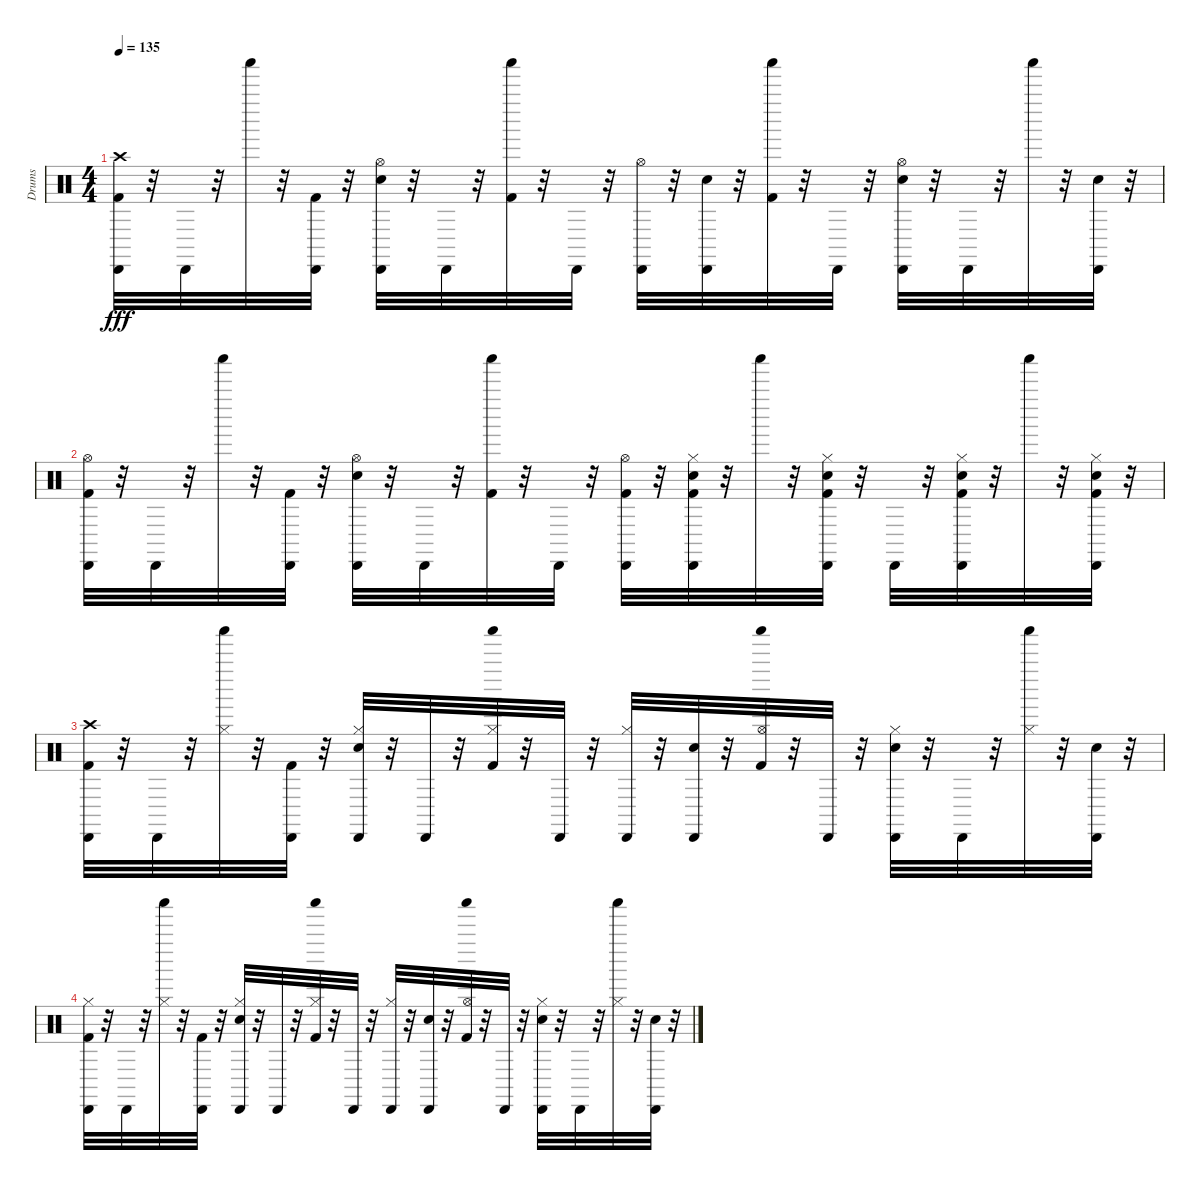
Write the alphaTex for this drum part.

\track ("Drums" "Drums") {instrument percussion}
\staff {score}
\articulation defaults
\ts (4 4)
\tempo 135
\clef neutral
\ks c
("Crash high (hit)" "Kick (hit) 2" "Cabasa (hit)").32{dy fff} r.32 "Cabasa (hit)".32 r.32 "Shaker (hit)".32 r.32 ("Kick (hit) 2" "Cabasa (hit)").32 r.32 ("Snare (hit) 2" "Hi-Hat (open)" "Cabasa (hit)").32 r.32 "Cabasa (hit)".32 r.32 ("Kick (hit) 2" "Shaker (hit)").32 r.32 "Cabasa (hit)".32 r.32 ("Hi-Hat (open)" "Cabasa (hit)").32 r.32 ("Snare (hit) 2" "Cabasa (hit)").32 r.32 ("Kick (hit) 2" "Shaker (hit)").32 r.32 "Cabasa (hit)".32 r.32 ("Snare (hit) 2" "Hi-Hat (open)" "Cabasa (hit)").32 r.32 "Cabasa (hit)".32 r.32 "Shaker (hit)".32 r.32 ("Snare (hit) 2" "Cabasa (hit)").32 r.32 |
("Hi-Hat (open)" "Kick (hit) 2" "Cabasa (hit)").32 r.32 "Cabasa (hit)".32 r.32 "Shaker (hit)".32 r.32 ("Kick (hit) 2" "Cabasa (hit)").32 r.32 ("Snare (hit) 2" "Hi-Hat (open)" "Cabasa (hit)").32 r.32 "Cabasa (hit)".32 r.32 ("Kick (hit) 2" "Shaker (hit)").32 r.32 "Cabasa (hit)".32 r.32 ("Hi-Hat (open)" "Kick (hit) 2" "Cabasa (hit)").32 r.32 ("Snare (hit) 2" "Kick (hit) 2" "Hi-Hat (closed)" "Cabasa (hit)").32 r.32 "Shaker (hit)".32 r.32 ("Kick (hit) 2" "Snare (hit) 2" "Hi-Hat (closed)" "Cabasa (hit)").32 r.32 "Cabasa (hit)".32 r.32 ("Kick (hit) 2" "Snare (hit) 2" "Hi-Hat (closed)" "Cabasa (hit)").32 r.32 "Shaker (hit)".32 r.32 ("Snare (hit) 2" "Kick (hit) 2" "Hi-Hat (closed)" "Cabasa (hit)").32 r.32 |
("Crash high (hit)" "Kick (hit) 2" "Cabasa (hit)").32 r.32 "Cabasa (hit)".32 r.32 ("Shaker (hit)" "Hi-Hat (closed)").32 r.32 ("Kick (hit) 2" "Cabasa (hit)").32 r.32 ("Snare (hit) 2" "Hi-Hat (closed)" "Cabasa (hit)").32 r.32 "Cabasa (hit)".32 r.32 ("Kick (hit) 2" "Shaker (hit)" "Hi-Hat (closed)").32 r.32 "Cabasa (hit)".32 r.32 ("Hi-Hat (closed)" "Cabasa (hit)").32 r.32 ("Snare (hit) 2" "Cabasa (hit)").32 r.32 ("Kick (hit) 2" "Shaker (hit)" "Hi-Hat (open)").32 r.32 "Cabasa (hit)".32 r.32 ("Snare (hit) 2" "Hi-Hat (closed)" "Cabasa (hit)").32 r.32 "Cabasa (hit)".32 r.32 ("Shaker (hit)" "Hi-Hat (closed)").32 r.32 ("Snare (hit) 2" "Cabasa (hit)").32 r.32 |
("Hi-Hat (closed)" "Kick (hit) 2" "Cabasa (hit)").32 r.32 "Cabasa (hit)".32 r.32 ("Shaker (hit)" "Hi-Hat (closed)").32 r.32 ("Kick (hit) 2" "Cabasa (hit)").32 r.32 ("Snare (hit) 2" "Hi-Hat (closed)" "Cabasa (hit)").32 r.32 "Cabasa (hit)".32 r.32 ("Kick (hit) 2" "Shaker (hit)" "Hi-Hat (closed)").32 r.32 "Cabasa (hit)".32 r.32 ("Hi-Hat (closed)" "Cabasa (hit)").32 r.32 ("Snare (hit) 2" "Cabasa (hit)").32 r.32 ("Kick (hit) 2" "Shaker (hit)" "Hi-Hat (open)").32 r.32 "Cabasa (hit)".32 r.32 ("Snare (hit) 2" "Hi-Hat (closed)" "Cabasa (hit)").32 r.32 "Cabasa (hit)".32 r.32 ("Shaker (hit)" "Hi-Hat (closed)").32 r.32 ("Snare (hit) 2" "Cabasa (hit)").32 r.32
